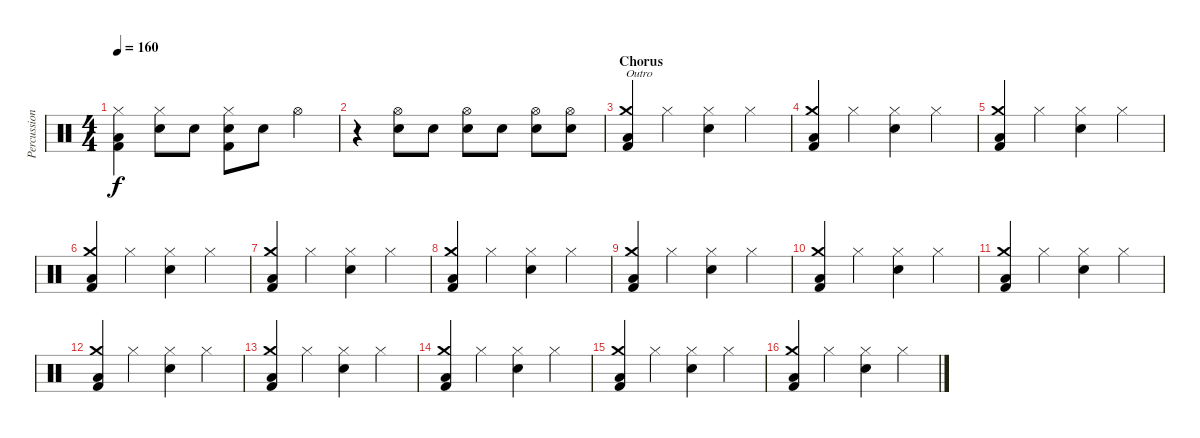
\track ("Percussion" "Percussion") {instrument percussion}
\staff {score}
\articulation defaults
\ts (4 4)
\tempo 160
\clef neutral
\ks c
("Hi-Hat (closed)" "Low Floor Tom (hit)" "Kick (hit) 2").4{dy f} ("Hi-Hat (closed)" "Electric Snare (hit)").8 "Electric Snare (hit)".8 ("Hi-Hat (closed)" "Electric Snare (hit)" "Kick (hit) 2").8 "Electric Snare (hit)".8 "Hi-Hat (open)".4 |
r.4 ("Hi-Hat (open)" "Electric Snare (hit)").8 "Electric Snare (hit)".8 ("Hi-Hat (open)" "Electric Snare (hit)").8 "Electric Snare (hit)".8 ("Hi-Hat (open)" "Electric Snare (hit)").8 ("Hi-Hat (open)" "Electric Snare (hit)").8 |
\section ("" "Chorus")
("Crash medium (hit)" "Low Tom (hit)" "Kick (hit) 2").4{txt "Outro" volume 13} "Hi-Hat (closed)".4 ("Hi-Hat (closed)" "Snare (hit) 2").4 "Hi-Hat (closed)".4 |
("Crash medium (hit)" "Low Tom (hit)" "Kick (hit) 2").4 "Hi-Hat (closed)".4 ("Hi-Hat (closed)" "Snare (hit) 2").4 "Hi-Hat (closed)".4 |
("Crash medium (hit)" "Low Tom (hit)" "Kick (hit) 2").4 "Hi-Hat (closed)".4 ("Hi-Hat (closed)" "Snare (hit) 2").4 "Hi-Hat (closed)".4 |
("Crash medium (hit)" "Low Tom (hit)" "Kick (hit) 2").4 "Hi-Hat (closed)".4 ("Hi-Hat (closed)" "Snare (hit) 2").4 "Hi-Hat (closed)".4 |
("Crash medium (hit)" "Low Tom (hit)" "Kick (hit) 2").4 "Hi-Hat (closed)".4 ("Hi-Hat (closed)" "Snare (hit) 2").4 "Hi-Hat (closed)".4 |
("Crash medium (hit)" "Low Tom (hit)" "Kick (hit) 2").4 "Hi-Hat (closed)".4 ("Hi-Hat (closed)" "Snare (hit) 2").4 "Hi-Hat (closed)".4 |
("Crash medium (hit)" "Low Tom (hit)" "Kick (hit) 2").4 "Hi-Hat (closed)".4 ("Hi-Hat (closed)" "Snare (hit) 2").4 "Hi-Hat (closed)".4 |
("Crash medium (hit)" "Low Tom (hit)" "Kick (hit) 2").4 "Hi-Hat (closed)".4 ("Hi-Hat (closed)" "Snare (hit) 2").4 "Hi-Hat (closed)".4 |
("Crash medium (hit)" "Low Tom (hit)" "Kick (hit) 2").4 "Hi-Hat (closed)".4 ("Hi-Hat (closed)" "Snare (hit) 2").4 "Hi-Hat (closed)".4 |
("Crash medium (hit)" "Low Tom (hit)" "Kick (hit) 2").4 "Hi-Hat (closed)".4 ("Hi-Hat (closed)" "Snare (hit) 2").4 "Hi-Hat (closed)".4 |
("Crash medium (hit)" "Low Tom (hit)" "Kick (hit) 2").4 "Hi-Hat (closed)".4 ("Hi-Hat (closed)" "Snare (hit) 2").4 "Hi-Hat (closed)".4 |
("Crash medium (hit)" "Low Tom (hit)" "Kick (hit) 2").4 "Hi-Hat (closed)".4 ("Hi-Hat (closed)" "Snare (hit) 2").4 "Hi-Hat (closed)".4 |
("Crash medium (hit)" "Low Tom (hit)" "Kick (hit) 2").4 "Hi-Hat (closed)".4 ("Hi-Hat (closed)" "Snare (hit) 2").4 "Hi-Hat (closed)".4 |
("Crash medium (hit)" "Low Tom (hit)" "Kick (hit) 2").4 "Hi-Hat (closed)".4 ("Hi-Hat (closed)" "Snare (hit) 2").4 "Hi-Hat (closed)".4
